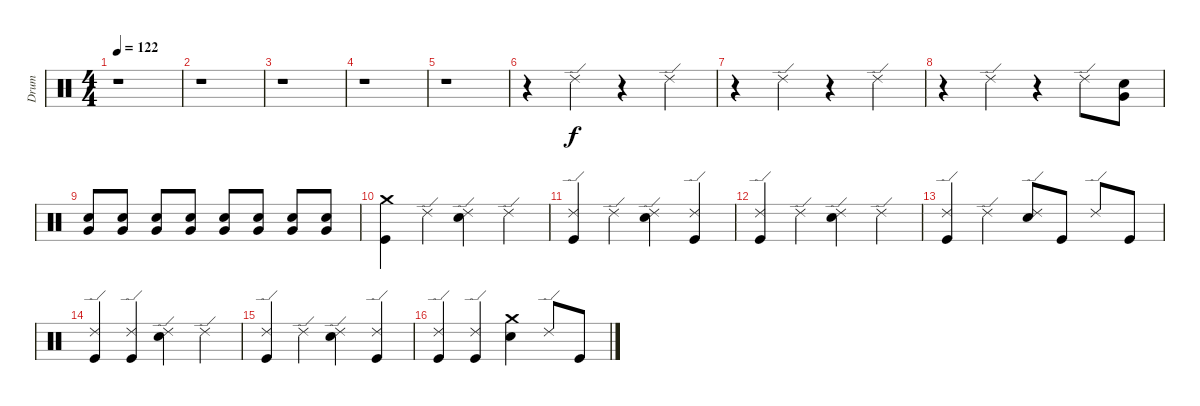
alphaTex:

\track ("Drum" "Drum") {instrument percussion}
\staff {score}
\articulation defaults
\ts (4 4)
\tempo 122
\clef neutral
\ks c
r.1{dy f} |
r.1 |
r.1 |
r.1 |
r.1 |
r.4 "Ride (edge) 2".4 r.4 "Ride (edge) 2".4 |
r.4 "Ride (edge) 2".4 r.4 "Ride (edge) 2".4 |
r.4 "Ride (edge) 2".4 r.4 "Ride (edge) 2".8 ("Electric Snare (hit)" "Very Low Tom (hit)").8 |
("Electric Snare (hit)" "Very Low Tom (hit)").8 ("Electric Snare (hit)" "Very Low Tom (hit)").8 ("Electric Snare (hit)" "Very Low Tom (hit)").8 ("Electric Snare (hit)" "Very Low Tom (hit)").8 ("Electric Snare (hit)" "Very Low Tom (hit)").8 ("Electric Snare (hit)" "Very Low Tom (hit)").8 ("Electric Snare (hit)" "Very Low Tom (hit)").8 ("Electric Snare (hit)" "Very Low Tom (hit)").8 |
("Kick (hit)" "Crash medium (hit)").4 "Ride (edge) 2".4 ("Electric Snare (hit)" "Ride (edge) 2").4 "Ride (edge) 2".4 |
("Kick (hit)" "Ride (edge) 2").4 "Ride (edge) 2".4 ("Electric Snare (hit)" "Ride (edge) 2").4 ("Kick (hit)" "Ride (edge) 2").4 |
("Kick (hit)" "Ride (edge) 2").4 "Ride (edge) 2".4 ("Electric Snare (hit)" "Ride (edge) 2").4 "Ride (edge) 2".4 |
("Kick (hit)" "Ride (edge) 2").4 "Ride (edge) 2".4 ("Electric Snare (hit)" "Ride (edge) 2").8 "Kick (hit)".8 "Ride (edge) 2".8 "Kick (hit)".8 |
("Kick (hit)" "Ride (edge) 2").4 ("Kick (hit)" "Ride (edge) 2").4 ("Electric Snare (hit)" "Ride (edge) 2").4 "Ride (edge) 2".4 |
("Kick (hit)" "Ride (edge) 2").4 "Ride (edge) 2".4 ("Electric Snare (hit)" "Ride (edge) 2").4 ("Kick (hit)" "Ride (edge) 2").4 |
("Kick (hit)" "Ride (edge) 2").4 ("Kick (hit)" "Ride (edge) 2").4 ("Electric Snare (hit)" "Crash medium (hit)").4 "Ride (edge) 2".8 "Kick (hit)".8
